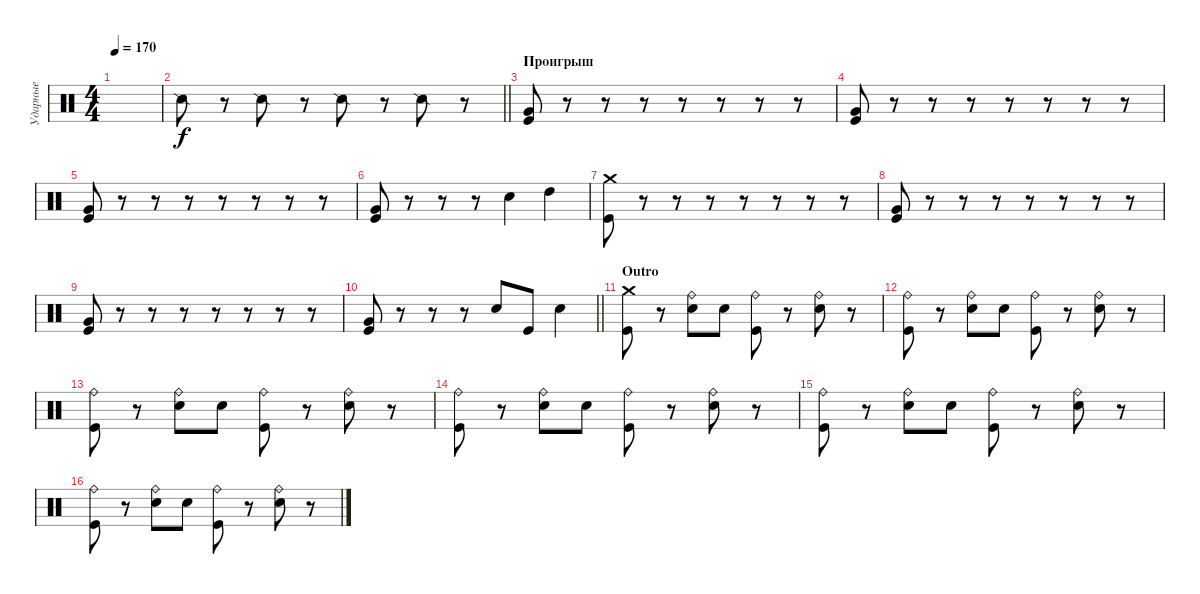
\track ("Ударные" "Ударные") {instrument percussion}
\staff {score}
\articulation defaults
\ts (4 4)
\tempo 170
\clef neutral
\ks c
|
\barLineRight lightlight "Snare (side stick) 2".8
r.8 "Snare (side stick) 2".8 r.8 "Snare (side stick) 2".8 r.8 "Snare (side stick) 2".8 r.8 |
\section ("" "Проигрыш")
("Very Low Tom (hit)" "Kick (hit)").8 r.8 r.8 r.8 r.8 r.8 r.8 r.8 |
("Very Low Tom (hit)" "Kick (hit)").8 r.8 r.8 r.8 r.8 r.8 r.8 r.8 |
("Very Low Tom (hit)" "Kick (hit)").8 r.8 r.8 r.8 r.8 r.8 r.8 r.8 |
("Very Low Tom (hit)" "Kick (hit)").8 r.8 r.8 r.8 "Electric Snare (hit)".4 "High Tom (hit)".4 |
("Crash medium (hit)" "Kick (hit)").8 r.8 r.8 r.8 r.8 r.8 r.8 r.8 |
("Very Low Tom (hit)" "Kick (hit)").8 r.8 r.8 r.8 r.8 r.8 r.8 r.8 |
("Very Low Tom (hit)" "Kick (hit)").8 r.8 r.8 r.8 r.8 r.8 r.8 r.8 |
\barLineRight lightlight
("Very Low Tom (hit)" "Kick (hit)").8 r.8 r.8 r.8 "Electric Snare (hit)".8 "Kick (hit)".8 "Electric Snare (hit)".4 |
\section ("" "Outro")
("Crash medium (hit)" "Kick (hit)").8 r.8 ("Ride (bell)" "Electric Snare (hit)").8 "Electric Snare (hit)".8 ("Ride (bell)" "Kick (hit)").8 r.8 ("Ride (bell)" "Electric Snare (hit)").8 r.8 |
("Ride (bell)" "Kick (hit)").8 r.8 ("Ride (bell)" "Electric Snare (hit)").8 "Electric Snare (hit)".8 ("Ride (bell)" "Kick (hit)").8 r.8 ("Ride (bell)" "Electric Snare (hit)").8 r.8 |
("Ride (bell)" "Kick (hit)").8 r.8 ("Ride (bell)" "Electric Snare (hit)").8 "Electric Snare (hit)".8 ("Ride (bell)" "Kick (hit)").8 r.8 ("Ride (bell)" "Electric Snare (hit)").8 r.8 |
("Ride (bell)" "Kick (hit)").8 r.8 ("Ride (bell)" "Electric Snare (hit)").8 "Electric Snare (hit)".8 ("Ride (bell)" "Kick (hit)").8 r.8 ("Ride (bell)" "Electric Snare (hit)").8 r.8 |
("Ride (bell)" "Kick (hit)").8 r.8 ("Ride (bell)" "Electric Snare (hit)").8 "Electric Snare (hit)".8 ("Ride (bell)" "Kick (hit)").8 r.8 ("Ride (bell)" "Electric Snare (hit)").8 r.8 |
("Ride (bell)" "Kick (hit)").8 r.8 ("Ride (bell)" "Electric Snare (hit)").8 "Electric Snare (hit)".8 ("Ride (bell)" "Kick (hit)").8 r.8 ("Ride (bell)" "Electric Snare (hit)").8 r.8
